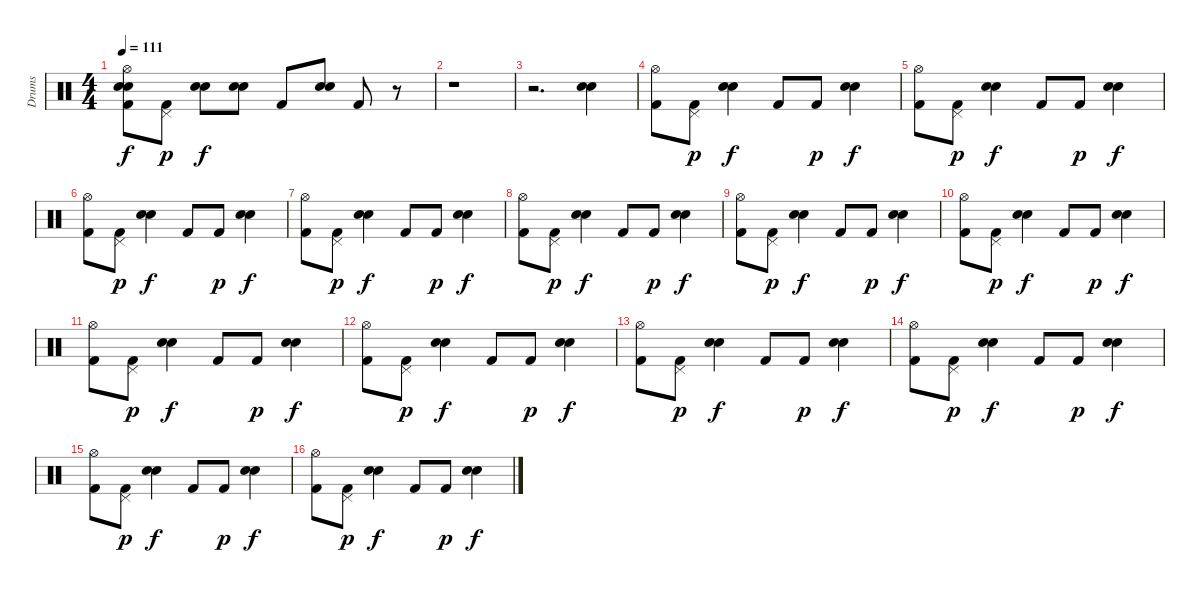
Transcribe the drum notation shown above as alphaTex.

\track ("Drums" "Drums") {instrument percussion}
\staff {score}
\articulation defaults
\ts (4 4)
\tempo 111
\clef neutral
\ks c
("Hi-Hat (open)" "Snare (hit) 2" "Snare (hit) 2" "Kick (hit) 2").8{dy f} ("Kick (hit) 2" "Pedal Hi-Hat (hit)").8{dy p} ("Snare (hit) 2" "Snare (hit) 2").8{dy f} ("Snare (hit) 2" "Snare (hit) 2").8 "Kick (hit) 2".8 ("Snare (hit) 2" "Snare (hit) 2").8 "Kick (hit) 2".8 r.8 |
r.1 |
r.2{d} ("Snare (hit) 2" "Snare (hit) 2").4 |
("Hi-Hat (open)" "Kick (hit) 2").8 ("Kick (hit) 2" "Pedal Hi-Hat (hit)").8{dy p} ("Snare (hit) 2" "Snare (hit) 2").4{dy f} "Kick (hit) 2".8 "Kick (hit) 2".8{dy p} ("Snare (hit) 2" "Snare (hit) 2").4{dy f} |
("Hi-Hat (open)" "Kick (hit) 2").8 ("Kick (hit) 2" "Pedal Hi-Hat (hit)").8{dy p} ("Snare (hit) 2" "Snare (hit) 2").4{dy f} "Kick (hit) 2".8 "Kick (hit) 2".8{dy p} ("Snare (hit) 2" "Snare (hit) 2").4{dy f} |
("Hi-Hat (open)" "Kick (hit) 2").8 ("Kick (hit) 2" "Pedal Hi-Hat (hit)").8{dy p} ("Snare (hit) 2" "Snare (hit) 2").4{dy f} "Kick (hit) 2".8 "Kick (hit) 2".8{dy p} ("Snare (hit) 2" "Snare (hit) 2").4{dy f} |
("Hi-Hat (open)" "Kick (hit) 2").8 ("Kick (hit) 2" "Pedal Hi-Hat (hit)").8{dy p} ("Snare (hit) 2" "Snare (hit) 2").4{dy f} "Kick (hit) 2".8 "Kick (hit) 2".8{dy p} ("Snare (hit) 2" "Snare (hit) 2").4{dy f} |
("Hi-Hat (open)" "Kick (hit) 2").8 ("Kick (hit) 2" "Pedal Hi-Hat (hit)").8{dy p} ("Snare (hit) 2" "Snare (hit) 2").4{dy f} "Kick (hit) 2".8 "Kick (hit) 2".8{dy p} ("Snare (hit) 2" "Snare (hit) 2").4{dy f} |
("Hi-Hat (open)" "Kick (hit) 2").8 ("Kick (hit) 2" "Pedal Hi-Hat (hit)").8{dy p} ("Snare (hit) 2" "Snare (hit) 2").4{dy f} "Kick (hit) 2".8 "Kick (hit) 2".8{dy p} ("Snare (hit) 2" "Snare (hit) 2").4{dy f} |
("Hi-Hat (open)" "Kick (hit) 2").8 ("Kick (hit) 2" "Pedal Hi-Hat (hit)").8{dy p} ("Snare (hit) 2" "Snare (hit) 2").4{dy f} "Kick (hit) 2".8 "Kick (hit) 2".8{dy p} ("Snare (hit) 2" "Snare (hit) 2").4{dy f} |
("Hi-Hat (open)" "Kick (hit) 2").8 ("Kick (hit) 2" "Pedal Hi-Hat (hit)").8{dy p} ("Snare (hit) 2" "Snare (hit) 2").4{dy f} "Kick (hit) 2".8 "Kick (hit) 2".8{dy p} ("Snare (hit) 2" "Snare (hit) 2").4{dy f} |
("Hi-Hat (open)" "Kick (hit) 2").8 ("Kick (hit) 2" "Pedal Hi-Hat (hit)").8{dy p} ("Snare (hit) 2" "Snare (hit) 2").4{dy f} "Kick (hit) 2".8 "Kick (hit) 2".8{dy p} ("Snare (hit) 2" "Snare (hit) 2").4{dy f} |
("Hi-Hat (open)" "Kick (hit) 2").8 ("Kick (hit) 2" "Pedal Hi-Hat (hit)").8{dy p} ("Snare (hit) 2" "Snare (hit) 2").4{dy f} "Kick (hit) 2".8 "Kick (hit) 2".8{dy p} ("Snare (hit) 2" "Snare (hit) 2").4{dy f} |
("Hi-Hat (open)" "Kick (hit) 2").8 ("Kick (hit) 2" "Pedal Hi-Hat (hit)").8{dy p} ("Snare (hit) 2" "Snare (hit) 2").4{dy f} "Kick (hit) 2".8 "Kick (hit) 2".8{dy p} ("Snare (hit) 2" "Snare (hit) 2").4{dy f} |
("Hi-Hat (open)" "Kick (hit) 2").8 ("Kick (hit) 2" "Pedal Hi-Hat (hit)").8{dy p} ("Snare (hit) 2" "Snare (hit) 2").4{dy f} "Kick (hit) 2".8 "Kick (hit) 2".8{dy p} ("Snare (hit) 2" "Snare (hit) 2").4{dy f} |
("Hi-Hat (open)" "Kick (hit) 2").8 ("Kick (hit) 2" "Pedal Hi-Hat (hit)").8{dy p} ("Snare (hit) 2" "Snare (hit) 2").4{dy f} "Kick (hit) 2".8 "Kick (hit) 2".8{dy p} ("Snare (hit) 2" "Snare (hit) 2").4{dy f}
